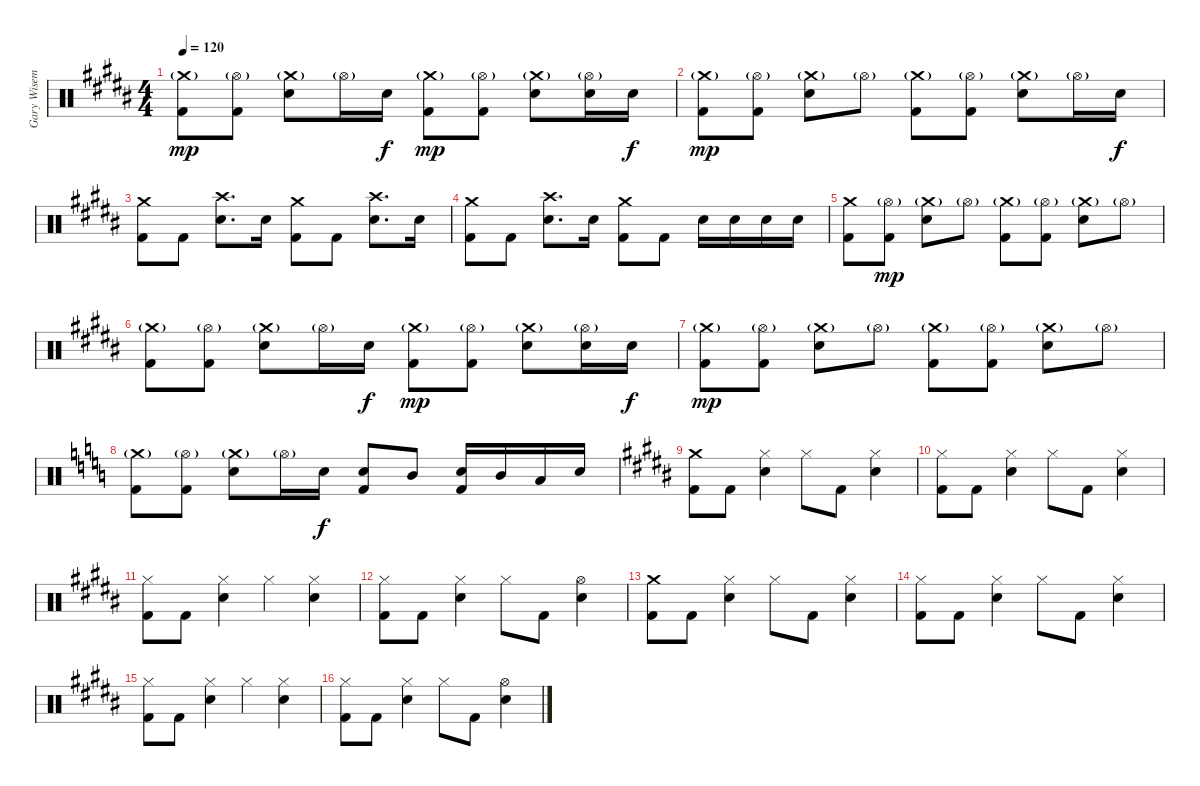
\track ("Gary Wiseman - Drums" "Gary Wisem") {instrument percussion}
\staff {score}
\articulation defaults
\ts (4 4)
\tempo 120
\clef neutral
\ks b
("Crash medium (hit)"{g} "Kick (hit) 2").8{dy mp} ("Hi-Hat (open)"{g} "Kick (hit) 2").8 ("Crash medium (hit)"{g} "Electric Snare (hit)").8 "Hi-Hat (open)"{g}.16 "Electric Snare (hit)".16{dy f} ("Crash medium (hit)"{g} "Kick (hit) 2").8{dy mp} ("Hi-Hat (open)"{g} "Kick (hit) 2").8 ("Crash medium (hit)"{g} "Electric Snare (hit)").8 ("Hi-Hat (open)"{g} "Electric Snare (hit)").16 "Electric Snare (hit)".16{dy f} |
("Crash medium (hit)"{g} "Kick (hit) 2").8{dy mp} ("Hi-Hat (open)"{g} "Kick (hit) 2").8 ("Crash medium (hit)"{g} "Electric Snare (hit)").8 "Hi-Hat (open)"{g}.8 ("Crash medium (hit)"{g} "Kick (hit) 2").8 ("Hi-Hat (open)"{g} "Kick (hit) 2").8 ("Crash medium (hit)"{g} "Electric Snare (hit)").8 "Hi-Hat (open)"{g}.16 "Electric Snare (hit)".16{dy f} |
("Crash medium (hit)" "Kick (hit) 2").8 "Kick (hit) 2".8 ("Crash high (hit)" "Electric Snare (hit)").8{d} "Electric Snare (hit)".16 ("Crash medium (hit)" "Kick (hit) 2").8 "Kick (hit) 2".8 ("Crash high (hit)" "Electric Snare (hit)").8{d} "Electric Snare (hit)".16 |
("Crash medium (hit)" "Kick (hit) 2").8 "Kick (hit) 2".8 ("Crash high (hit)" "Electric Snare (hit)").8{d} "Electric Snare (hit)".16 ("Crash medium (hit)" "Kick (hit) 2").8 "Kick (hit) 2".8 "Electric Snare (hit)".16 "Electric Snare (hit)".16 "Electric Snare (hit)".16 "Electric Snare (hit)".16 |
("Crash medium (hit)" "Kick (hit) 2").8 ("Hi-Hat (open)"{g} "Kick (hit) 2").8{dy mp} ("Crash medium (hit)"{g} "Electric Snare (hit)").8 "Hi-Hat (open)"{g}.8 ("Crash medium (hit)"{g} "Kick (hit) 2").8 ("Hi-Hat (open)"{g} "Kick (hit) 2").8 ("Crash medium (hit)"{g} "Electric Snare (hit)").8 "Hi-Hat (open)"{g}.8 |
("Crash medium (hit)"{g} "Kick (hit) 2").8 ("Hi-Hat (open)"{g} "Kick (hit) 2").8 ("Crash medium (hit)"{g} "Electric Snare (hit)").8 "Hi-Hat (open)"{g}.16 "Electric Snare (hit)".16{dy f} ("Crash medium (hit)"{g} "Kick (hit) 2").8{dy mp} ("Hi-Hat (open)"{g} "Kick (hit) 2").8 ("Crash medium (hit)"{g} "Electric Snare (hit)").8 ("Hi-Hat (open)"{g} "Electric Snare (hit)").16 "Electric Snare (hit)".16{dy f} |
("Crash medium (hit)"{g} "Kick (hit) 2").8{dy mp} ("Hi-Hat (open)"{g} "Kick (hit) 2").8 ("Crash medium (hit)"{g} "Electric Snare (hit)").8 "Hi-Hat (open)"{g}.8 ("Crash medium (hit)"{g} "Kick (hit) 2").8 ("Hi-Hat (open)"{g} "Kick (hit) 2").8 ("Crash medium (hit)"{g} "Electric Snare (hit)").8 "Hi-Hat (open)"{g}.8 |
\ks c
("Crash medium (hit)"{g} "Kick (hit) 2").8 ("Hi-Hat (open)"{g} "Kick (hit) 2").8 ("Crash medium (hit)"{g} "Electric Snare (hit)").8 "Hi-Hat (open)"{g}.16 "Electric Snare (hit)".16{dy f} ("Electric Snare (hit)" "Kick (hit) 2").8 "Mid Tom (hit)".8 ("Electric Snare (hit)" "Kick (hit) 2").16 "Mid Tom (hit)".16 "Low Tom (hit)".16 "Electric Snare (hit)".16 |
\ks b
("Crash medium (hit)" "Kick (hit) 2").8 "Kick (hit) 2".8 ("Hi-Hat (closed)" "Electric Snare (hit)").4 "Hi-Hat (closed)".8 "Kick (hit) 2".8 ("Hi-Hat (closed)" "Electric Snare (hit)").4 |
("Hi-Hat (closed)" "Kick (hit) 2").8 "Kick (hit) 2".8 ("Hi-Hat (closed)" "Electric Snare (hit)").4 "Hi-Hat (closed)".8 "Kick (hit) 2".8 ("Hi-Hat (closed)" "Electric Snare (hit)").4 |
("Hi-Hat (closed)" "Kick (hit) 2").8 "Kick (hit) 2".8 ("Hi-Hat (closed)" "Electric Snare (hit)").4 "Hi-Hat (closed)".4 ("Hi-Hat (closed)" "Electric Snare (hit)").4 |
("Hi-Hat (closed)" "Kick (hit) 2").8 "Kick (hit) 2".8 ("Hi-Hat (closed)" "Electric Snare (hit)").4 "Hi-Hat (closed)".8 "Kick (hit) 2".8 ("Hi-Hat (open)" "Electric Snare (hit)").4 |
("Crash medium (hit)" "Kick (hit) 2").8 "Kick (hit) 2".8 ("Hi-Hat (closed)" "Electric Snare (hit)").4 "Hi-Hat (closed)".8 "Kick (hit) 2".8 ("Hi-Hat (closed)" "Electric Snare (hit)").4 |
("Hi-Hat (closed)" "Kick (hit) 2").8 "Kick (hit) 2".8 ("Hi-Hat (closed)" "Electric Snare (hit)").4 "Hi-Hat (closed)".8 "Kick (hit) 2".8 ("Hi-Hat (closed)" "Electric Snare (hit)").4 |
("Hi-Hat (closed)" "Kick (hit) 2").8 "Kick (hit) 2".8 ("Hi-Hat (closed)" "Electric Snare (hit)").4 "Hi-Hat (closed)".4 ("Hi-Hat (closed)" "Electric Snare (hit)").4 |
("Hi-Hat (closed)" "Kick (hit) 2").8 "Kick (hit) 2".8 ("Hi-Hat (closed)" "Electric Snare (hit)").4 "Hi-Hat (closed)".8 "Kick (hit) 2".8 ("Hi-Hat (open)" "Electric Snare (hit)").4
